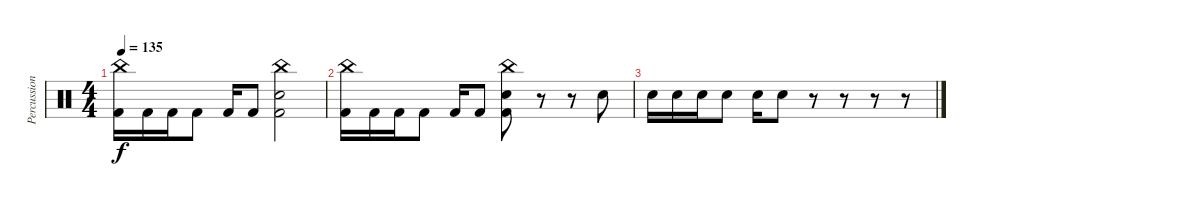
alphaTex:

\track ("Percussion" "Percussion") {instrument percussion}
\staff {score}
\articulation defaults
\ts (4 4)
\tempo 135
\clef neutral
\ks c
("China (hit)" "Kick (hit) 2").16{dy f} "Kick (hit) 2".16 "Kick (hit) 2".16 "Kick (hit) 2".8 "Kick (hit) 2".16 "Kick (hit) 2".8 ("China (hit)" "Electric Snare (hit)" "Kick (hit) 2").2 |
("China (hit)" "Kick (hit) 2").16 "Kick (hit) 2".16 "Kick (hit) 2".16 "Kick (hit) 2".8 "Kick (hit) 2".16 "Kick (hit) 2".8 ("China (hit)" "Electric Snare (hit)" "Kick (hit) 2").8 r.8 r.8 "Electric Snare (hit)".8 |
"Electric Snare (hit)".16 "Electric Snare (hit)".16 "Electric Snare (hit)".16 "Electric Snare (hit)".8 "Electric Snare (hit)".16 "Electric Snare (hit)".8 r.8 r.8 r.8 r.8
